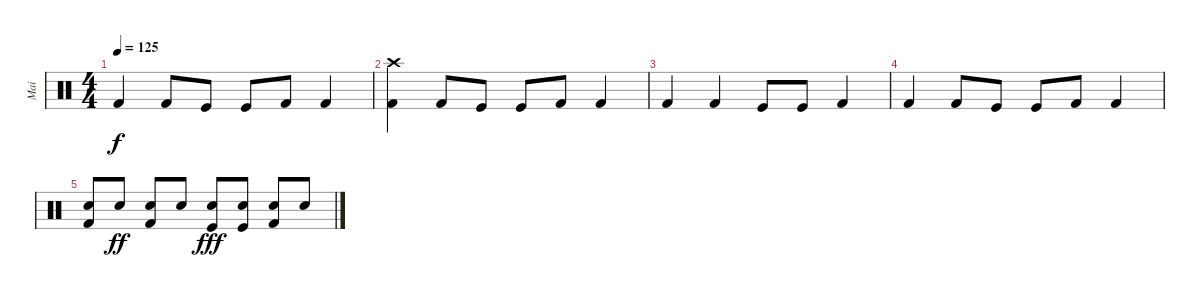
\track ("Mai" "Mai") {instrument percussion}
\staff {score}
\articulation defaults
\ts (4 4)
\tempo 125
\clef neutral
\ks c "Kick (hit) 2".4{dy f} "Kick (hit) 2".8 "Kick (hit)".8 "Kick (hit)".8 "Kick (hit) 2".8 "Kick (hit) 2".4
|
("Crash high (hit)" "Kick (hit) 2").4 "Kick (hit) 2".8 "Kick (hit)".8 "Kick (hit)".8 "Kick (hit) 2".8 "Kick (hit) 2".4 |
"Kick (hit) 2".4 "Kick (hit) 2".4 "Kick (hit)".8 "Kick (hit)".8 "Kick (hit) 2".4 |
"Kick (hit) 2".4 "Kick (hit) 2".8 "Kick (hit)".8 "Kick (hit)".8 "Kick (hit) 2".8 "Kick (hit) 2".4 |
("Snare (hit) 2" "Kick (hit) 2").8 "Snare (hit) 2".8{dy ff} ("Snare (hit) 2" "Kick (hit) 2").8 "Snare (hit) 2".8 ("Snare (hit) 2" "Kick (hit)").8{dy fff} ("Snare (hit) 2" "Kick (hit)").8 ("Snare (hit) 2" "Kick (hit) 2").8 "Snare (hit) 2".8
